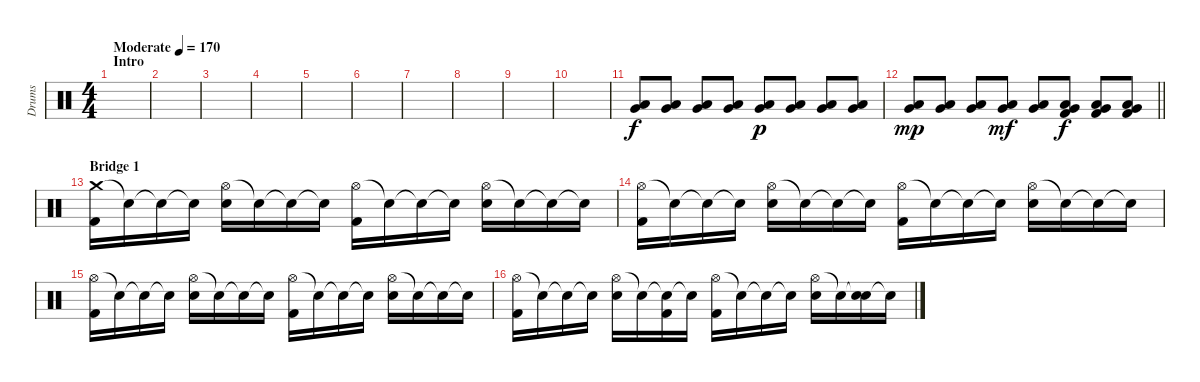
\track ("Drums" "Drums") {instrument percussion}
\staff {score}
\articulation defaults
\ts (4 4)
\section ("" "Intro")
\tempo (170 "Moderate")
\clef neutral
\ks c
|
|
|
|
|
|
|
|
|
|
("Very Low Tom (hit)" "Low Floor Tom (hit)").8 ("Very Low Tom (hit)" "Low Floor Tom (hit)").8 ("Very Low Tom (hit)" "Low Floor Tom (hit)").8 ("Very Low Tom (hit)" "Low Floor Tom (hit)").8 ("Very Low Tom (hit)" "Low Floor Tom (hit)").8{dy p} ("Very Low Tom (hit)" "Low Floor Tom (hit)").8 ("Very Low Tom (hit)" "Low Floor Tom (hit)").8 ("Very Low Tom (hit)" "Low Floor Tom (hit)").8 |
\barLineRight lightlight
("Very Low Tom (hit)" "Low Floor Tom (hit)").8{dy mp} ("Very Low Tom (hit)" "Low Floor Tom (hit)").8 ("Very Low Tom (hit)" "Low Floor Tom (hit)").8 ("Very Low Tom (hit)" "Low Floor Tom (hit)").8{dy mf} ("Very Low Tom (hit)" "Low Floor Tom (hit)").8 ("Kick (hit) 2" "Very Low Tom (hit)" "Low Floor Tom (hit)").8{dy f} ("Kick (hit) 2" "Very Low Tom (hit)" "Low Floor Tom (hit)").8 ("Kick (hit) 2" "Very Low Tom (hit)" "Low Floor Tom (hit)").8 |
\section ("" "Bridge 1")
("Crash medium (hit)" "Kick (hit) 2").16 "Snare (hit)"{t}.16 "Snare (hit)"{t}.16 "Snare (hit)"{t}.16 ("Hi-Hat (open)" "Snare (hit) 2").16 "Snare (hit)"{t}.16 "Snare (hit)"{t}.16 "Snare (hit)"{t}.16 ("Hi-Hat (open)" "Kick (hit) 2").16 "Snare (hit)"{t}.16 "Snare (hit)"{t}.16 "Snare (hit)"{t}.16 ("Hi-Hat (open)" "Snare (hit) 2").16 "Snare (hit)"{t}.16 "Snare (hit)"{t}.16 "Snare (hit)"{t}.16 |
("Hi-Hat (open)" "Kick (hit) 2").16 "Snare (hit)"{t}.16 "Snare (hit)"{t}.16 "Snare (hit)"{t}.16 ("Hi-Hat (open)" "Snare (hit) 2").16 "Snare (hit)"{t}.16 "Snare (hit)"{t}.16 "Snare (hit)"{t}.16 ("Hi-Hat (open)" "Kick (hit) 2").16 "Snare (hit)"{t}.16 "Snare (hit)"{t}.16 "Snare (hit)"{t}.16 ("Hi-Hat (open)" "Snare (hit) 2").16 "Snare (hit)"{t}.16 "Snare (hit)"{t}.16 "Snare (hit)"{t}.16 |
("Hi-Hat (open)" "Kick (hit) 2").16 "Snare (hit)"{t}.16 "Snare (hit)"{t}.16 "Snare (hit)"{t}.16 ("Hi-Hat (open)" "Snare (hit) 2").16 "Snare (hit)"{t}.16 "Snare (hit)"{t}.16 "Snare (hit)"{t}.16 ("Hi-Hat (open)" "Kick (hit) 2").16 "Snare (hit)"{t}.16 "Snare (hit)"{t}.16 "Snare (hit)"{t}.16 ("Hi-Hat (open)" "Snare (hit) 2").16 "Snare (hit)"{t}.16 "Snare (hit)"{t}.16 "Snare (hit)"{t}.16 |
("Hi-Hat (open)" "Kick (hit) 2").16 "Snare (hit)"{t}.16 "Snare (hit)"{t}.16 "Snare (hit)"{t}.16 ("Hi-Hat (open)" "Snare (hit) 2").16 "Snare (hit)"{t}.16 ("Snare (hit)"{t} "Kick (hit) 2").16 "Snare (hit)"{t}.16 ("Hi-Hat (open)" "Kick (hit) 2").16 "Snare (hit)"{t}.16 "Snare (hit)"{t}.16 "Snare (hit)"{t}.16 ("Hi-Hat (open)" "Snare (hit) 2").16 "Snare (hit)"{t}.16 ("Snare (hit)"{t} "Snare (hit) 2").16 "Snare (hit)"{t}.16
